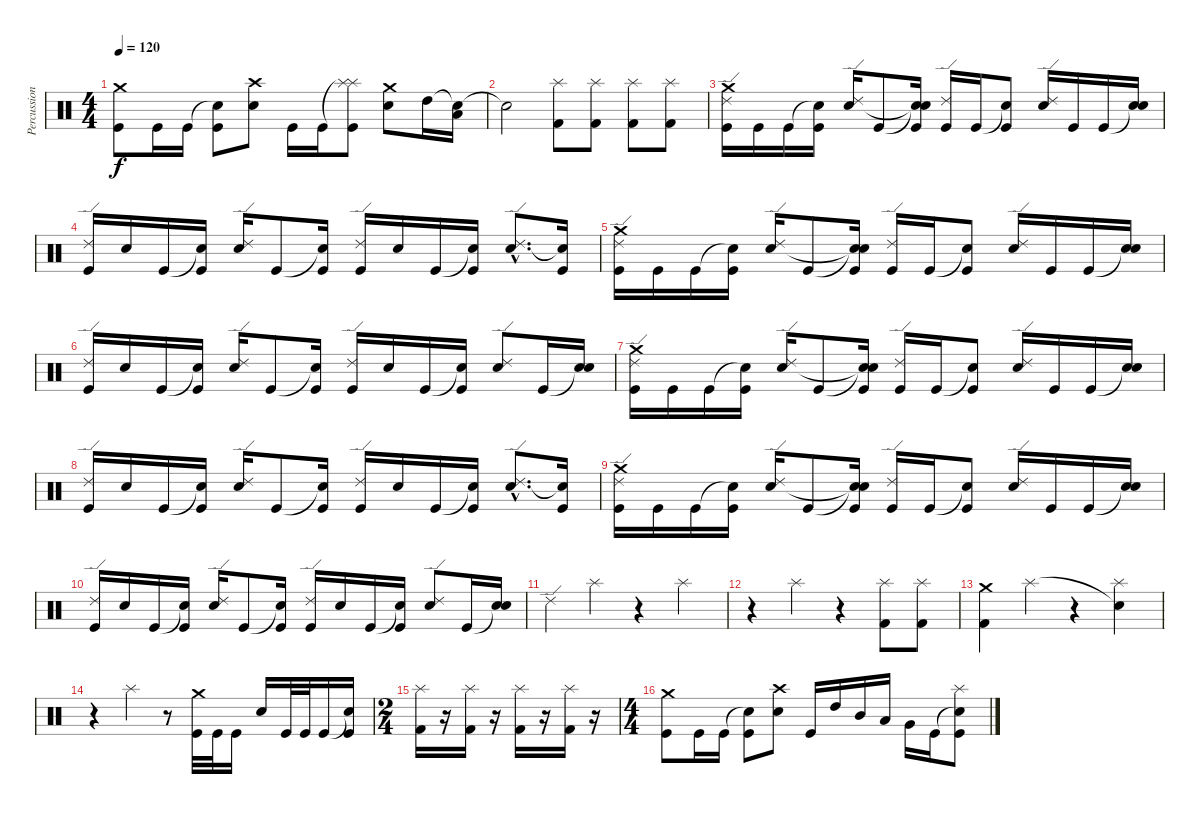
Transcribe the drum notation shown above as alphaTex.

\track ("Percussion" "Percussion") {instrument percussion}
\staff {score}
\articulation defaults
\ts (4 4)
\tempo 120
\clef neutral
\ks c
("Crash medium (hit)" "Kick (hit)").8{dy f} "Kick (hit)".16 "Kick (hit)".16 ("Snare (hit)"{t} "Kick (hit)").8 ("Crash high (hit)" "Electric Snare (hit)").8 "Kick (hit)".16 "Kick (hit)".16 ("Splash (hit)"{t} "Splash (hit)" "Kick (hit)").8 ("Crash medium (hit)" "Electric Snare (hit)").8 "High Tom (hit)".16 ("Snare (hit)"{t} "Low Tom (hit)").16 |
"Snare (hit)"{t}.2 ("Splash (hit)" "Kick (hit) 2").8 ("Splash (hit)" "Kick (hit) 2").8 ("Splash (hit)" "Kick (hit) 2").8 ("Splash (hit)" "Kick (hit) 2").8 |
("Crash medium (hit)" "Ride (edge) 2" "Kick (hit)").16 "Kick (hit)".16 "Kick (hit)".16 ("Snare (hit)"{t} "Kick (hit)").16 ("Ride (edge) 2" "Electric Snare (hit)").16 "Kick (hit)".8 ("Snare (hit)"{t} "Snare (hit)"{t} "Kick (hit)").16 ("Ride (edge) 2" "Kick (hit)").16 "Kick (hit)".16 ("Snare (hit)"{t} "Kick (hit)").8 ("Ride (edge) 2" "Electric Snare (hit)").16 "Kick (hit)".16 "Kick (hit)".16 ("Snare (hit)"{t} "Electric Snare (hit)").16 |
("Ride (edge) 2" "Kick (hit)").16 "Electric Snare (hit)".16 "Kick (hit)".16 ("Snare (hit)"{t} "Kick (hit)").16 ("Ride (edge) 2" "Electric Snare (hit)").16 "Kick (hit)".8 ("Snare (hit)"{t} "Kick (hit)").16 ("Ride (edge) 2" "Kick (hit)").16 "Electric Snare (hit)".16 "Kick (hit)".16 ("Snare (hit)"{t} "Kick (hit)").16 ("Ride (edge) 2"{hac} "Electric Snare (hit)"{hac}).8{d} ("Snare (hit)"{t} "Kick (hit)").16 |
("Crash medium (hit)" "Ride (edge) 2" "Kick (hit)").16 "Kick (hit)".16 "Kick (hit)".16 ("Snare (hit)"{t} "Kick (hit)").16 ("Ride (edge) 2" "Electric Snare (hit)").16 "Kick (hit)".8 ("Snare (hit)"{t} "Snare (hit)"{t} "Kick (hit)").16 ("Ride (edge) 2" "Kick (hit)").16 "Kick (hit)".16 ("Snare (hit)"{t} "Kick (hit)").8 ("Ride (edge) 2" "Electric Snare (hit)").16 "Kick (hit)".16 "Kick (hit)".16 ("Snare (hit)"{t} "Electric Snare (hit)").16 |
("Ride (edge) 2" "Kick (hit)").16 "Electric Snare (hit)".16 "Kick (hit)".16 ("Snare (hit)"{t} "Kick (hit)").16 ("Ride (edge) 2" "Electric Snare (hit)").16 "Kick (hit)".8 ("Snare (hit)"{t} "Kick (hit)").16 ("Ride (edge) 2" "Kick (hit)").16 "Electric Snare (hit)".16 "Kick (hit)".16 ("Snare (hit)"{t} "Kick (hit)").16 ("Ride (edge) 2" "Electric Snare (hit)").8 "Kick (hit)".16 ("Snare (hit)"{t} "Electric Snare (hit)").16 |
("Crash medium (hit)" "Ride (edge) 2" "Kick (hit)").16 "Kick (hit)".16 "Kick (hit)".16 ("Snare (hit)"{t} "Kick (hit)").16 ("Ride (edge) 2" "Electric Snare (hit)").16 "Kick (hit)".8 ("Snare (hit)"{t} "Snare (hit)"{t} "Kick (hit)").16 ("Ride (edge) 2" "Kick (hit)").16 "Kick (hit)".16 ("Snare (hit)"{t} "Kick (hit)").8 ("Ride (edge) 2" "Electric Snare (hit)").16 "Kick (hit)".16 "Kick (hit)".16 ("Snare (hit)"{t} "Electric Snare (hit)").16 |
("Ride (edge) 2" "Kick (hit)").16 "Electric Snare (hit)".16 "Kick (hit)".16 ("Snare (hit)"{t} "Kick (hit)").16 ("Ride (edge) 2" "Electric Snare (hit)").16 "Kick (hit)".8 ("Snare (hit)"{t} "Kick (hit)").16 ("Ride (edge) 2" "Kick (hit)").16 "Electric Snare (hit)".16 "Kick (hit)".16 ("Snare (hit)"{t} "Kick (hit)").16 ("Ride (edge) 2"{hac} "Electric Snare (hit)"{hac}).8{d} ("Snare (hit)"{t} "Kick (hit)").16 |
("Crash medium (hit)" "Ride (edge) 2" "Kick (hit)").16 "Kick (hit)".16 "Kick (hit)".16 ("Snare (hit)"{t} "Kick (hit)").16 ("Ride (edge) 2" "Electric Snare (hit)").16 "Kick (hit)".8 ("Snare (hit)"{t} "Snare (hit)"{t} "Kick (hit)").16 ("Ride (edge) 2" "Kick (hit)").16 "Kick (hit)".16 ("Snare (hit)"{t} "Kick (hit)").8 ("Ride (edge) 2" "Electric Snare (hit)").16 "Kick (hit)".16 "Kick (hit)".16 ("Snare (hit)"{t} "Electric Snare (hit)").16 |
("Ride (edge) 2" "Kick (hit)").16 "Electric Snare (hit)".16 "Kick (hit)".16 ("Snare (hit)"{t} "Kick (hit)").16 ("Ride (edge) 2" "Electric Snare (hit)").16 "Kick (hit)".8 ("Snare (hit)"{t} "Kick (hit)").16 ("Ride (edge) 2" "Kick (hit)").16 "Electric Snare (hit)".16 "Kick (hit)".16 ("Snare (hit)"{t} "Kick (hit)").16 ("Ride (edge) 2" "Electric Snare (hit)").8 "Kick (hit)".16 ("Snare (hit)"{t} "Electric Snare (hit)").16 |
"Ride (edge) 2".4 "Splash (hit)".4 r.4 "Splash (hit)".4 |
r.4 "Splash (hit)".4 r.4 ("Splash (hit)" "Kick (hit) 2").8 ("Splash (hit)" "Kick (hit) 2").8 |
("Crash medium (hit)" "Kick (hit) 2").4 "Splash (hit)".4 r.4 ("Snare (hit)"{t} "Splash (hit)").4 |
r.4 "Splash (hit)".4 r.8 ("Crash medium (hit)" "Kick (hit)").32 "Kick (hit)".32 "Kick (hit)".16 "Electric Snare (hit)".16 "Kick (hit)".32 "Kick (hit)".32 "Kick (hit)".16 ("Snare (hit)"{t} "Kick (hit)").16 |
\ts (2 4)
("Splash (hit)" "Kick (hit) 2").16 r.16 ("Splash (hit)" "Kick (hit) 2").16 r.16 ("Splash (hit)" "Kick (hit) 2").16 r.16 ("Splash (hit)" "Kick (hit) 2").16 r.16 |
\ts (4 4)
("Crash medium (hit)" "Kick (hit)").8 "Kick (hit)".16 "Kick (hit)".16 ("Snare (hit)"{t} "Kick (hit)").8 ("Crash high (hit)" "Electric Snare (hit)").8 "Kick (hit)".16 "High Tom (hit)".16 "Mid Tom (hit)".16 "Low Tom (hit)".16 "Very Low Tom (hit)".16 "Kick (hit)".16 ("Snare (hit)"{t} "Splash (hit)" "Kick (hit)").8
